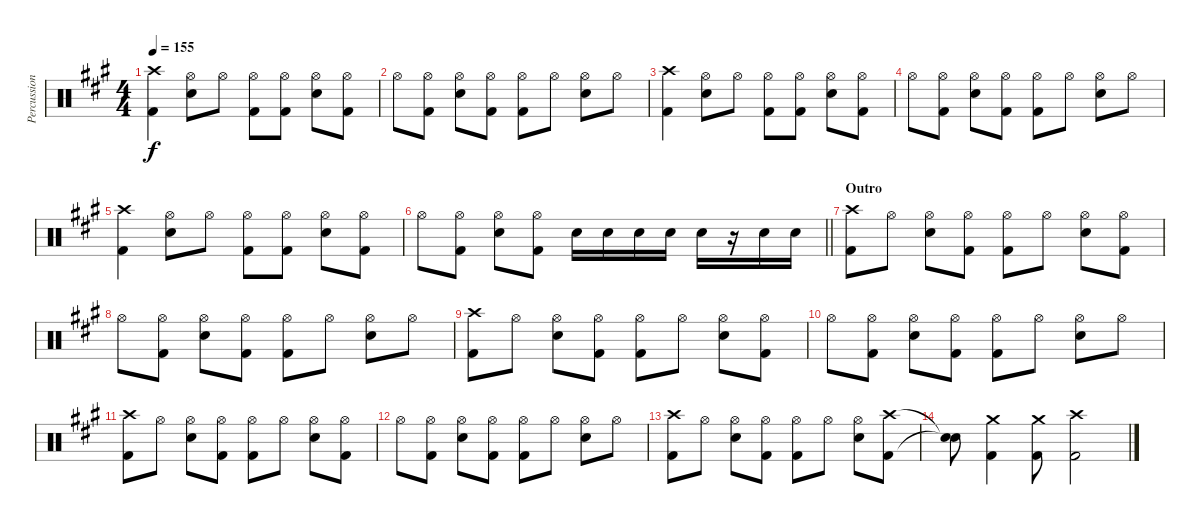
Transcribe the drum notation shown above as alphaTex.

\track ("Percussion" "Percussion") {instrument percussion}
\staff {score}
\articulation defaults
\ts (4 4)
\tempo 155
\clef neutral
\ks a
("Crash high (hit)" "Kick (hit) 2").4{dy f} ("Hi-Hat (open)" "Electric Snare (hit)").8 "Hi-Hat (open)".8 ("Hi-Hat (open)" "Kick (hit) 2").8 ("Hi-Hat (open)" "Kick (hit) 2").8 ("Hi-Hat (open)" "Electric Snare (hit)").8 ("Hi-Hat (open)" "Kick (hit) 2").8 |
"Hi-Hat (open)".8 ("Hi-Hat (open)" "Kick (hit) 2").8 ("Hi-Hat (open)" "Electric Snare (hit)").8 ("Hi-Hat (open)" "Kick (hit) 2").8 ("Hi-Hat (open)" "Kick (hit) 2").8 "Hi-Hat (open)".8 ("Hi-Hat (open)" "Electric Snare (hit)").8 "Hi-Hat (open)".8 |
("Crash high (hit)" "Kick (hit) 2").4 ("Hi-Hat (open)" "Electric Snare (hit)").8 "Hi-Hat (open)".8 ("Hi-Hat (open)" "Kick (hit) 2").8 ("Hi-Hat (open)" "Kick (hit) 2").8 ("Hi-Hat (open)" "Electric Snare (hit)").8 ("Hi-Hat (open)" "Kick (hit) 2").8 |
"Hi-Hat (open)".8 ("Hi-Hat (open)" "Kick (hit) 2").8 ("Hi-Hat (open)" "Electric Snare (hit)").8 ("Hi-Hat (open)" "Kick (hit) 2").8 ("Hi-Hat (open)" "Kick (hit) 2").8 "Hi-Hat (open)".8 ("Hi-Hat (open)" "Electric Snare (hit)").8 "Hi-Hat (open)".8 |
("Crash high (hit)" "Kick (hit) 2").4 ("Hi-Hat (open)" "Electric Snare (hit)").8 "Hi-Hat (open)".8 ("Hi-Hat (open)" "Kick (hit) 2").8 ("Hi-Hat (open)" "Kick (hit) 2").8 ("Hi-Hat (open)" "Electric Snare (hit)").8 ("Hi-Hat (open)" "Kick (hit) 2").8 |
\barLineRight lightlight "Hi-Hat (open)".8
("Hi-Hat (open)" "Kick (hit) 2").8 ("Hi-Hat (open)" "Electric Snare (hit)").8 ("Hi-Hat (open)" "Kick (hit) 2").8 "Electric Snare (hit)".16 "Electric Snare (hit)".16 "Electric Snare (hit)".16 "Electric Snare (hit)".16 "Electric Snare (hit)".16 r.16 "Electric Snare (hit)".16 "Electric Snare (hit)".16 |
\section ("" "Outro")
("Crash high (hit)" "Kick (hit) 2").8 "Hi-Hat (open)".8 ("Hi-Hat (open)" "Electric Snare (hit)").8 ("Hi-Hat (open)" "Kick (hit) 2").8 ("Hi-Hat (open)" "Kick (hit) 2").8 "Hi-Hat (open)".8 ("Hi-Hat (open)" "Electric Snare (hit)").8 ("Hi-Hat (open)" "Kick (hit) 2").8 |
"Hi-Hat (open)".8 ("Hi-Hat (open)" "Kick (hit) 2").8 ("Hi-Hat (open)" "Electric Snare (hit)").8 ("Hi-Hat (open)" "Kick (hit) 2").8 ("Hi-Hat (open)" "Kick (hit) 2").8 "Hi-Hat (open)".8 ("Hi-Hat (open)" "Electric Snare (hit)").8 "Hi-Hat (open)".8 |
("Crash high (hit)" "Kick (hit) 2").8 "Hi-Hat (open)".8 ("Hi-Hat (open)" "Electric Snare (hit)").8 ("Hi-Hat (open)" "Kick (hit) 2").8 ("Hi-Hat (open)" "Kick (hit) 2").8 "Hi-Hat (open)".8 ("Hi-Hat (open)" "Electric Snare (hit)").8 ("Hi-Hat (open)" "Kick (hit) 2").8 |
"Hi-Hat (open)".8 ("Hi-Hat (open)" "Kick (hit) 2").8 ("Hi-Hat (open)" "Electric Snare (hit)").8 ("Hi-Hat (open)" "Kick (hit) 2").8 ("Hi-Hat (open)" "Kick (hit) 2").8 "Hi-Hat (open)".8 ("Hi-Hat (open)" "Electric Snare (hit)").8 "Hi-Hat (open)".8 |
("Crash high (hit)" "Kick (hit) 2").8 "Hi-Hat (open)".8 ("Hi-Hat (open)" "Electric Snare (hit)").8 ("Hi-Hat (open)" "Kick (hit) 2").8 ("Hi-Hat (open)" "Kick (hit) 2").8 "Hi-Hat (open)".8 ("Hi-Hat (open)" "Electric Snare (hit)").8 ("Hi-Hat (open)" "Kick (hit) 2").8 |
"Hi-Hat (open)".8 ("Hi-Hat (open)" "Kick (hit) 2").8 ("Hi-Hat (open)" "Electric Snare (hit)").8 ("Hi-Hat (open)" "Kick (hit) 2").8 ("Hi-Hat (open)" "Kick (hit) 2").8 "Hi-Hat (open)".8 ("Hi-Hat (open)" "Electric Snare (hit)").8 "Hi-Hat (open)".8 |
("Crash high (hit)" "Kick (hit) 2").8 "Hi-Hat (open)".8 ("Hi-Hat (open)" "Electric Snare (hit)").8 ("Hi-Hat (open)" "Kick (hit) 2").8 ("Hi-Hat (open)" "Kick (hit) 2").8 "Hi-Hat (open)".8 ("Hi-Hat (open)" "Electric Snare (hit)").8 ("Crash high (hit)" "Kick (hit) 2").8 |
("Snare (hit)"{t} "Snare (hit)"{t}).8 ("Crash medium (hit)" "Kick (hit) 2").4 ("Crash medium (hit)" "Kick (hit) 2").8 ("Crash high (hit)" "Kick (hit) 2").2
